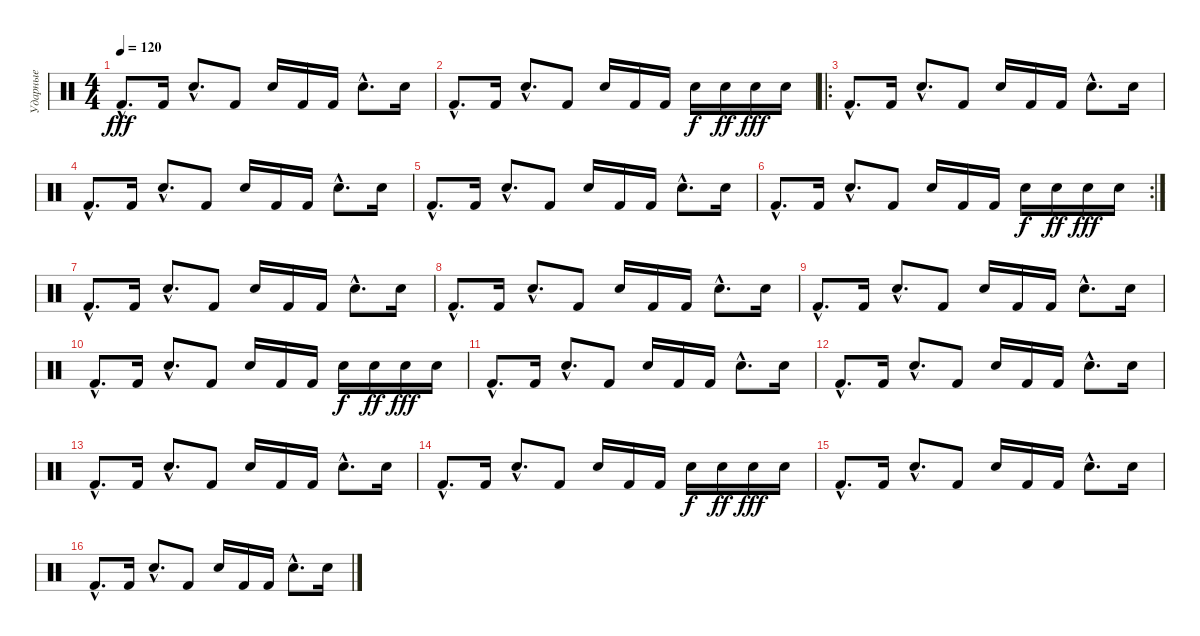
\track ("Ударные" "Ударные") {instrument percussion}
\staff {score}
\articulation defaults
\ts (4 4)
\tempo 120
\clef neutral
\ks c "Kick (hit) 2"{hac}.8{d dy fff volume 16} "Kick (hit) 2".16 "Electric Snare (hit)"{hac}.8{d} "Kick (hit) 2".8 "Electric Snare (hit)".16 "Kick (hit) 2".16 "Kick (hit) 2".16 "Electric Snare (hit)"{hac}.8{d} "Electric Snare (hit)".16
|
"Kick (hit) 2"{hac}.8{d volume 16} "Kick (hit) 2".16 "Electric Snare (hit)"{hac}.8{d} "Kick (hit) 2".8 "Electric Snare (hit)".16 "Kick (hit) 2".16 "Kick (hit) 2".16 "Electric Snare (hit)".16{dy f} "Electric Snare (hit)".16{dy ff} "Electric Snare (hit)".16{dy fff} "Electric Snare (hit)".16 |
\ro "Kick (hit) 2"{hac}.8{d volume 16} "Kick (hit) 2".16 "Electric Snare (hit)"{hac}.8{d} "Kick (hit) 2".8 "Electric Snare (hit)".16 "Kick (hit) 2".16 "Kick (hit) 2".16 "Electric Snare (hit)"{hac}.8{d} "Electric Snare (hit)".16
|
"Kick (hit) 2"{hac}.8{d volume 16} "Kick (hit) 2".16 "Electric Snare (hit)"{hac}.8{d} "Kick (hit) 2".8 "Electric Snare (hit)".16 "Kick (hit) 2".16 "Kick (hit) 2".16 "Electric Snare (hit)"{hac}.8{d} "Electric Snare (hit)".16 |
"Kick (hit) 2"{hac}.8{d volume 16} "Kick (hit) 2".16 "Electric Snare (hit)"{hac}.8{d} "Kick (hit) 2".8 "Electric Snare (hit)".16 "Kick (hit) 2".16 "Kick (hit) 2".16 "Electric Snare (hit)"{hac}.8{d} "Electric Snare (hit)".16 |
\rc 2 "Kick (hit) 2"{hac}.8{d volume 16} "Kick (hit) 2".16 "Electric Snare (hit)"{hac}.8{d} "Kick (hit) 2".8 "Electric Snare (hit)".16 "Kick (hit) 2".16 "Kick (hit) 2".16 "Electric Snare (hit)".16{dy f} "Electric Snare (hit)".16{dy ff} "Electric Snare (hit)".16{dy fff} "Electric Snare (hit)".16
|
"Kick (hit) 2"{hac}.8{d volume 16} "Kick (hit) 2".16 "Electric Snare (hit)"{hac}.8{d} "Kick (hit) 2".8 "Electric Snare (hit)".16 "Kick (hit) 2".16 "Kick (hit) 2".16 "Electric Snare (hit)"{hac}.8{d} "Electric Snare (hit)".16 |
"Kick (hit) 2"{hac}.8{d volume 16} "Kick (hit) 2".16 "Electric Snare (hit)"{hac}.8{d} "Kick (hit) 2".8 "Electric Snare (hit)".16 "Kick (hit) 2".16 "Kick (hit) 2".16 "Electric Snare (hit)"{hac}.8{d} "Electric Snare (hit)".16 |
"Kick (hit) 2"{hac}.8{d volume 16} "Kick (hit) 2".16 "Electric Snare (hit)"{hac}.8{d} "Kick (hit) 2".8 "Electric Snare (hit)".16 "Kick (hit) 2".16 "Kick (hit) 2".16 "Electric Snare (hit)"{hac}.8{d} "Electric Snare (hit)".16 |
"Kick (hit) 2"{hac}.8{d volume 16} "Kick (hit) 2".16 "Electric Snare (hit)"{hac}.8{d} "Kick (hit) 2".8 "Electric Snare (hit)".16 "Kick (hit) 2".16 "Kick (hit) 2".16 "Electric Snare (hit)".16{dy f} "Electric Snare (hit)".16{dy ff} "Electric Snare (hit)".16{dy fff} "Electric Snare (hit)".16 |
"Kick (hit) 2"{hac}.8{d volume 16} "Kick (hit) 2".16 "Electric Snare (hit)"{hac}.8{d} "Kick (hit) 2".8 "Electric Snare (hit)".16 "Kick (hit) 2".16 "Kick (hit) 2".16 "Electric Snare (hit)"{hac}.8{d} "Electric Snare (hit)".16 |
"Kick (hit) 2"{hac}.8{d volume 16} "Kick (hit) 2".16 "Electric Snare (hit)"{hac}.8{d} "Kick (hit) 2".8 "Electric Snare (hit)".16 "Kick (hit) 2".16 "Kick (hit) 2".16 "Electric Snare (hit)"{hac}.8{d} "Electric Snare (hit)".16 |
"Kick (hit) 2"{hac}.8{d volume 16} "Kick (hit) 2".16 "Electric Snare (hit)"{hac}.8{d} "Kick (hit) 2".8 "Electric Snare (hit)".16 "Kick (hit) 2".16 "Kick (hit) 2".16 "Electric Snare (hit)"{hac}.8{d} "Electric Snare (hit)".16 |
"Kick (hit) 2"{hac}.8{d volume 16} "Kick (hit) 2".16 "Electric Snare (hit)"{hac}.8{d} "Kick (hit) 2".8 "Electric Snare (hit)".16 "Kick (hit) 2".16 "Kick (hit) 2".16 "Electric Snare (hit)".16{dy f} "Electric Snare (hit)".16{dy ff} "Electric Snare (hit)".16{dy fff} "Electric Snare (hit)".16 |
"Kick (hit) 2"{hac}.8{d volume 16} "Kick (hit) 2".16 "Electric Snare (hit)"{hac}.8{d} "Kick (hit) 2".8 "Electric Snare (hit)".16 "Kick (hit) 2".16 "Kick (hit) 2".16 "Electric Snare (hit)"{hac}.8{d} "Electric Snare (hit)".16 |
"Kick (hit) 2"{hac}.8{d volume 16} "Kick (hit) 2".16 "Electric Snare (hit)"{hac}.8{d} "Kick (hit) 2".8 "Electric Snare (hit)".16 "Kick (hit) 2".16 "Kick (hit) 2".16 "Electric Snare (hit)"{hac}.8{d} "Electric Snare (hit)".16
